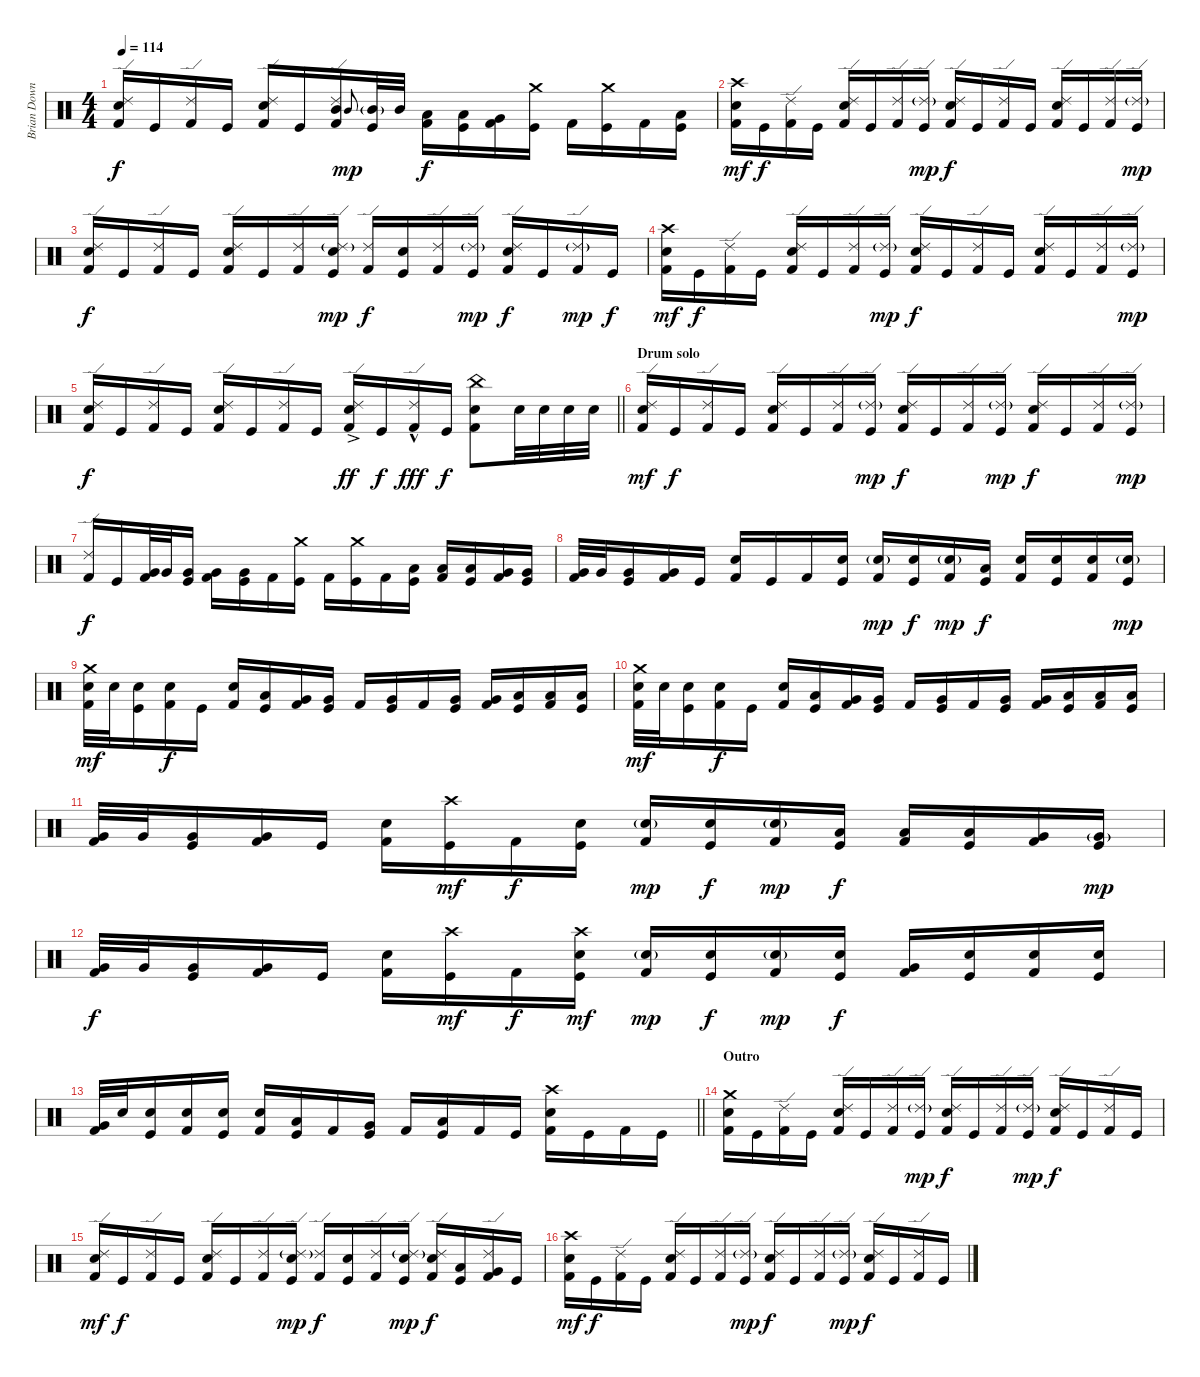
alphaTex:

\track ("Brian Downey" "Brian Down") {instrument percussion}
\staff {score}
\articulation defaults
\ts (4 4)
\tempo 114
\clef neutral
\ks c
("Ride (edge) 2" "Electric Snare (hit)" "Kick (hit) 2").16{dy f} "Kick (hit)".16 ("Ride (edge) 2" "Kick (hit) 2").16 "Kick (hit)".16 ("Ride (edge) 2" "Electric Snare (hit)" "Kick (hit) 2").16 "Kick (hit)".16 ("Ride (edge) 2" "Mid Tom (hit)" "Kick (hit) 2").16 "Mid Tom (hit)".8{gr onbeat dy mp} ("Mid Tom (hit)"{g} "Kick (hit)").32 "Mid Tom (hit)".32 ("Low Tom (hit)" "Kick (hit) 2").16{dy f} ("Low Tom (hit)" "Kick (hit)").16 ("Very Low Tom (hit)" "Kick (hit) 2").16 ("Crash medium (hit)" "Kick (hit)").16 "Kick (hit) 2".16 ("Crash medium (hit)" "Kick (hit)").16 "Kick (hit) 2".16 ("Low Floor Tom (hit)" "Kick (hit)").16 |
("Crash high (hit)" "Electric Snare (hit)" "Kick (hit) 2").16{dy mf} "Kick (hit)".16{dy f} ("Ride (edge) 2" "Kick (hit) 2").16 "Kick (hit)".16 ("Ride (edge) 2" "Electric Snare (hit)" "Kick (hit) 2").16 "Kick (hit)".16 ("Ride (edge) 2" "Kick (hit) 2").16 ("Ride (edge) 2"{g} "Kick (hit)").16{dy mp} ("Ride (edge) 2" "Electric Snare (hit)" "Kick (hit) 2").16{dy f} "Kick (hit)".16 ("Ride (edge) 2" "Kick (hit) 2").16 "Kick (hit)".16 ("Ride (edge) 2" "Electric Snare (hit)" "Kick (hit) 2").16 "Kick (hit)".16 ("Ride (edge) 2" "Kick (hit) 2").16 ("Ride (edge) 2"{g} "Kick (hit)").16{dy mp} |
("Ride (edge) 2" "Electric Snare (hit)" "Kick (hit) 2").16{dy f} "Kick (hit)".16 ("Ride (edge) 2" "Kick (hit) 2").16 "Kick (hit)".16 ("Ride (edge) 2" "Electric Snare (hit)" "Kick (hit) 2").16 "Kick (hit)".16 ("Ride (edge) 2" "Kick (hit) 2").16 ("Ride (edge) 2"{g} "Electric Snare (hit)" "Kick (hit)").16{dy mp} ("Ride (edge) 2" "Kick (hit) 2").16{dy f} ("Electric Snare (hit)" "Kick (hit)").16 ("Ride (edge) 2" "Kick (hit) 2").16 ("Ride (edge) 2"{g} "Kick (hit)").16{dy mp} ("Ride (edge) 2" "Electric Snare (hit)" "Kick (hit) 2").16{dy f} "Kick (hit)".16 ("Ride (edge) 2"{g} "Kick (hit) 2").16{dy mp} "Kick (hit)".16{dy f} |
("Crash high (hit)" "Electric Snare (hit)" "Kick (hit) 2").16{dy mf} "Kick (hit)".16{dy f} ("Ride (edge) 2" "Kick (hit) 2").16 "Kick (hit)".16 ("Ride (edge) 2" "Electric Snare (hit)" "Kick (hit) 2").16 "Kick (hit)".16 ("Ride (edge) 2" "Kick (hit) 2").16 ("Ride (edge) 2"{g} "Kick (hit)").16{dy mp} ("Ride (edge) 2" "Electric Snare (hit)" "Kick (hit) 2").16{dy f} "Kick (hit)".16 ("Ride (edge) 2" "Kick (hit) 2").16 "Kick (hit)".16 ("Ride (edge) 2" "Electric Snare (hit)" "Kick (hit) 2").16 "Kick (hit)".16 ("Ride (edge) 2" "Kick (hit) 2").16 ("Ride (edge) 2"{g} "Kick (hit)").16{dy mp} |
\barLineRight lightlight
("Ride (edge) 2" "Electric Snare (hit)" "Kick (hit) 2").16{dy f} "Kick (hit)".16 ("Ride (edge) 2" "Kick (hit) 2").16 "Kick (hit)".16 ("Ride (edge) 2" "Electric Snare (hit)" "Kick (hit) 2").16 "Kick (hit)".16 ("Ride (edge) 2" "Kick (hit) 2").16 "Kick (hit)".16 ("Ride (edge) 2"{ac} "Electric Snare (hit)" "Kick (hit) 2").16{dy ff} "Kick (hit)".16{dy f} ("Ride (edge) 2"{hac} "Kick (hit) 2").16{dy fff} "Kick (hit)".16{dy f} ("China (hit)" "Electric Snare (hit)" "Kick (hit) 2").8 "Electric Snare (hit)".32 "Electric Snare (hit)".32 "Electric Snare (hit)".32 "Electric Snare (hit)".32 |
\section ("" "Drum solo")
("Ride (edge) 2" "Electric Snare (hit)" "Kick (hit) 2").16{dy mf} "Kick (hit)".16{dy f} ("Ride (edge) 2" "Kick (hit) 2").16 "Kick (hit)".16 ("Ride (edge) 2" "Electric Snare (hit)" "Kick (hit) 2").16 "Kick (hit)".16 ("Ride (edge) 2" "Kick (hit) 2").16 ("Ride (edge) 2"{g} "Kick (hit)").16{dy mp} ("Ride (edge) 2" "Electric Snare (hit)" "Kick (hit) 2").16{dy f} "Kick (hit)".16 ("Ride (edge) 2" "Kick (hit) 2").16 ("Ride (edge) 2"{g} "Kick (hit)").16{dy mp} ("Ride (edge) 2" "Electric Snare (hit)" "Kick (hit) 2").16{dy f} "Kick (hit)".16 ("Ride (edge) 2" "Kick (hit) 2").16 ("Ride (edge) 2"{g} "Kick (hit)").16{dy mp} |
("Ride (edge) 2" "Kick (hit) 2").16{dy f} "Kick (hit)".16 ("Very Low Tom (hit)" "Kick (hit) 2").32 "Very Low Tom (hit)".32 ("Very Low Tom (hit)" "Kick (hit)").16 ("Very Low Tom (hit)" "Kick (hit) 2").16 ("Very Low Tom (hit)" "Kick (hit)").16 "Kick (hit) 2".16 ("Crash medium (hit)" "Kick (hit)").16 "Kick (hit) 2".16 ("Crash medium (hit)" "Kick (hit)").16 "Kick (hit) 2".16 ("Low Tom (hit)" "Kick (hit)").16 ("Low Tom (hit)" "Kick (hit) 2").16 ("Low Tom (hit)" "Kick (hit)").16 ("Very Low Tom (hit)" "Kick (hit) 2").16 ("Very Low Tom (hit)" "Kick (hit)").16 |
("Very Low Tom (hit)" "Kick (hit) 2").32 "Very Low Tom (hit)".32 ("Very Low Tom (hit)" "Kick (hit)").16 ("Very Low Tom (hit)" "Kick (hit) 2").16 "Kick (hit)".16 ("Electric Snare (hit)" "Kick (hit) 2").16 "Kick (hit)".16 "Kick (hit) 2".16 ("Electric Snare (hit)" "Kick (hit)").16 ("Electric Snare (hit)"{g} "Kick (hit) 2").16{dy mp} ("Electric Snare (hit)" "Kick (hit)").16{dy f} ("Electric Snare (hit)"{g} "Kick (hit) 2").16{dy mp} ("Low Tom (hit)" "Kick (hit)").16{dy f} ("Electric Snare (hit)" "Kick (hit) 2").16 ("Electric Snare (hit)" "Kick (hit)").16 ("Electric Snare (hit)" "Kick (hit) 2").16 ("Electric Snare (hit)"{g} "Kick (hit)").16{dy mp} |
("Crash medium (hit)" "Electric Snare (hit)" "Kick (hit) 2").32{dy mf} "Electric Snare (hit)".32 ("Electric Snare (hit)" "Kick (hit)").16 ("Electric Snare (hit)" "Kick (hit) 2").16{dy f} "Kick (hit)".16 ("Electric Snare (hit)" "Kick (hit) 2").16 ("Low Tom (hit)" "Kick (hit)").16 ("Very Low Tom (hit)" "Kick (hit) 2").16 ("Very Low Tom (hit)" "Kick (hit)").16 "Kick (hit) 2".16 ("Very Low Tom (hit)" "Kick (hit)").16 "Kick (hit) 2".16 ("Very Low Tom (hit)" "Kick (hit)").16 ("Very Low Tom (hit)" "Kick (hit) 2").16 ("Low Floor Tom (hit)" "Kick (hit)").16 ("Low Floor Tom (hit)" "Kick (hit) 2").16 ("Low Floor Tom (hit)" "Kick (hit)").16 |
("Crash medium (hit)" "Electric Snare (hit)" "Kick (hit) 2").32{dy mf} "Electric Snare (hit)".32 ("Electric Snare (hit)" "Kick (hit)").16 ("Electric Snare (hit)" "Kick (hit) 2").16{dy f} "Kick (hit)".16 ("Electric Snare (hit)" "Kick (hit) 2").16 ("Low Tom (hit)" "Kick (hit)").16 ("Very Low Tom (hit)" "Kick (hit) 2").16 ("Very Low Tom (hit)" "Kick (hit)").16 "Kick (hit) 2".16 ("Very Low Tom (hit)" "Kick (hit)").16 "Kick (hit) 2".16 ("Very Low Tom (hit)" "Kick (hit)").16 ("Very Low Tom (hit)" "Kick (hit) 2").16 ("Low Floor Tom (hit)" "Kick (hit)").16 ("Low Floor Tom (hit)" "Kick (hit) 2").16 ("Low Floor Tom (hit)" "Kick (hit)").16 |
("Very Low Tom (hit)" "Kick (hit) 2").32 "Very Low Tom (hit)".32 ("Very Low Tom (hit)" "Kick (hit)").16 ("Very Low Tom (hit)" "Kick (hit) 2").16 "Kick (hit)".16 ("Electric Snare (hit)" "Kick (hit) 2").16 ("Crash high (hit)" "Kick (hit)").16{dy mf} "Kick (hit) 2".16{dy f} ("Electric Snare (hit)" "Kick (hit)").16 ("Electric Snare (hit)"{g} "Kick (hit) 2").16{dy mp} ("Electric Snare (hit)" "Kick (hit)").16{dy f} ("Electric Snare (hit)"{g} "Kick (hit) 2").16{dy mp} ("Low Tom (hit)" "Kick (hit)").16{dy f} ("Low Tom (hit)" "Kick (hit) 2").16 ("Low Tom (hit)" "Kick (hit)").16 ("Very Low Tom (hit)" "Kick (hit) 2").16 ("Very Low Tom (hit)"{g} "Kick (hit)").16{dy mp} |
("Very Low Tom (hit)" "Kick (hit) 2").32{dy f} "Very Low Tom (hit)".32 ("Very Low Tom (hit)" "Kick (hit)").16 ("Very Low Tom (hit)" "Kick (hit) 2").16 "Kick (hit)".16 ("Electric Snare (hit)" "Kick (hit) 2").16 ("Crash high (hit)" "Kick (hit)").16{dy mf} "Kick (hit) 2".16{dy f} ("Crash high (hit)" "Electric Snare (hit)" "Kick (hit)").16{dy mf} ("Electric Snare (hit)"{g} "Kick (hit) 2").16{dy mp} ("Electric Snare (hit)" "Kick (hit)").16{dy f} ("Electric Snare (hit)"{g} "Kick (hit) 2").16{dy mp} ("Electric Snare (hit)" "Kick (hit)").16{dy f} ("Very Low Tom (hit)" "Kick (hit) 2").16 ("Electric Snare (hit)" "Kick (hit)").16 ("Electric Snare (hit)" "Kick (hit) 2").16 ("Electric Snare (hit)" "Kick (hit)").16 |
\barLineRight lightlight
("Very Low Tom (hit)" "Kick (hit) 2").32 "Electric Snare (hit)".32 ("Electric Snare (hit)" "Kick (hit)").16 ("Electric Snare (hit)" "Kick (hit) 2").16 ("Electric Snare (hit)" "Kick (hit)").16 ("Electric Snare (hit)" "Kick (hit) 2").16 ("Low Tom (hit)" "Kick (hit)").16 "Kick (hit) 2".16 ("Very Low Tom (hit)" "Kick (hit)").16 "Kick (hit) 2".16 ("Low Floor Tom (hit)" "Kick (hit)").16 "Kick (hit) 2".16 "Kick (hit)".16 ("Crash high (hit)" "Electric Snare (hit)" "Kick (hit) 2").16 "Kick (hit)".16 "Kick (hit) 2".16 "Kick (hit)".16 |
\section ("" "Outro")
("Crash medium (hit)" "Electric Snare (hit)" "Kick (hit) 2").16 "Kick (hit)".16 ("Ride (edge) 2" "Kick (hit) 2").16 "Kick (hit)".16 ("Ride (edge) 2" "Electric Snare (hit)" "Kick (hit) 2").16 "Kick (hit)".16 ("Ride (edge) 2" "Kick (hit) 2").16 ("Ride (edge) 2"{g} "Kick (hit)").16{dy mp} ("Ride (edge) 2" "Electric Snare (hit)" "Kick (hit) 2").16{dy f} "Kick (hit)".16 ("Ride (edge) 2" "Kick (hit) 2").16 ("Ride (edge) 2"{g} "Kick (hit)").16{dy mp} ("Ride (edge) 2" "Electric Snare (hit)" "Kick (hit) 2").16{dy f} "Kick (hit)".16 ("Ride (edge) 2" "Kick (hit) 2").16 "Kick (hit)".16 |
("Ride (edge) 2" "Electric Snare (hit)" "Kick (hit) 2").16{dy mf} "Kick (hit)".16{dy f} ("Ride (edge) 2" "Kick (hit) 2").16 "Kick (hit)".16 ("Ride (edge) 2" "Electric Snare (hit)" "Kick (hit) 2").16 "Kick (hit)".16 ("Ride (edge) 2" "Kick (hit) 2").16 ("Ride (edge) 2"{g} "Electric Snare (hit)" "Kick (hit)").16{dy mp} ("Ride (edge) 2" "Kick (hit) 2").16{dy f} ("Electric Snare (hit)" "Kick (hit)").16 ("Ride (edge) 2" "Kick (hit) 2").16 ("Ride (edge) 2"{g} "Electric Snare (hit)" "Kick (hit)").16{dy mp} ("Ride (edge) 2" "Electric Snare (hit)" "Kick (hit) 2").16{dy f} ("Low Tom (hit)" "Kick (hit)").16 ("Ride (edge) 2" "Very Low Tom (hit)" "Kick (hit) 2").16 "Kick (hit)".16 |
("Crash high (hit)" "Electric Snare (hit)" "Kick (hit) 2").16{dy mf} "Kick (hit)".16{dy f} ("Ride (edge) 2" "Kick (hit) 2").16 "Kick (hit)".16 ("Ride (edge) 2" "Electric Snare (hit)" "Kick (hit) 2").16 "Kick (hit)".16 ("Ride (edge) 2" "Kick (hit) 2").16 ("Ride (edge) 2"{g} "Kick (hit)").16{dy mp} ("Ride (edge) 2" "Electric Snare (hit)" "Kick (hit) 2").16{dy f} "Kick (hit)".16 ("Ride (edge) 2" "Kick (hit) 2").16 ("Ride (edge) 2"{g} "Kick (hit)").16{dy mp} ("Ride (edge) 2" "Electric Snare (hit)" "Kick (hit) 2").16{dy f} "Kick (hit)".16 ("Ride (edge) 2" "Kick (hit) 2").16 "Kick (hit)".16
